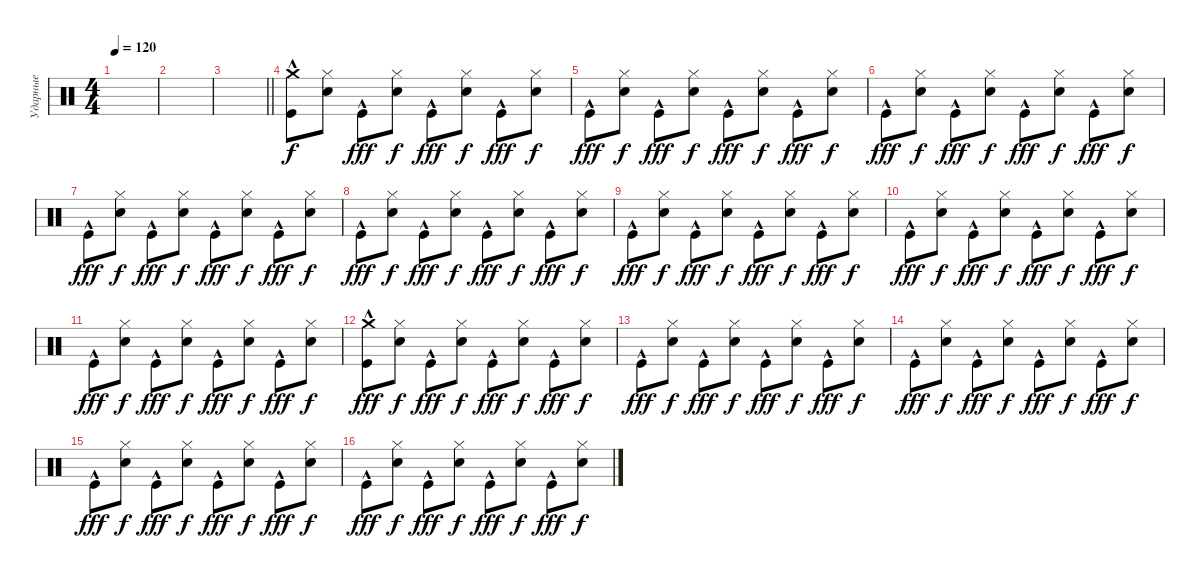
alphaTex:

\track ("Ударные" "Ударные") {instrument percussion}
\staff {score}
\articulation defaults
\ts (4 4)
\tempo 120
\clef neutral
\ks c
|
|
\barLineRight lightlight
|
("Kick (hit)"{hac} "Crash medium (hit)").8 ("Hand Clap (hit)" "Hi-Hat (closed)").8{dy f} "Kick (hit)"{hac}.8{dy fff} ("Hand Clap (hit)" "Hi-Hat (closed)").8{dy f} "Kick (hit)"{hac}.8{dy fff} ("Hand Clap (hit)" "Hi-Hat (closed)").8{dy f} "Kick (hit)"{hac}.8{dy fff} ("Hand Clap (hit)" "Hi-Hat (closed)").8{dy f} |
"Kick (hit)"{hac}.8{dy fff} ("Hand Clap (hit)" "Hi-Hat (closed)").8{dy f} "Kick (hit)"{hac}.8{dy fff} ("Hand Clap (hit)" "Hi-Hat (closed)").8{dy f} "Kick (hit)"{hac}.8{dy fff} ("Hand Clap (hit)" "Hi-Hat (closed)").8{dy f} "Kick (hit)"{hac}.8{dy fff} ("Hand Clap (hit)" "Hi-Hat (closed)").8{dy f} |
"Kick (hit)"{hac}.8{dy fff} ("Hand Clap (hit)" "Hi-Hat (closed)").8{dy f} "Kick (hit)"{hac}.8{dy fff} ("Hand Clap (hit)" "Hi-Hat (closed)").8{dy f} "Kick (hit)"{hac}.8{dy fff} ("Hand Clap (hit)" "Hi-Hat (closed)").8{dy f} "Kick (hit)"{hac}.8{dy fff} ("Hand Clap (hit)" "Hi-Hat (closed)").8{dy f} |
"Kick (hit)"{hac}.8{dy fff} ("Hand Clap (hit)" "Hi-Hat (closed)").8{dy f} "Kick (hit)"{hac}.8{dy fff} ("Hand Clap (hit)" "Hi-Hat (closed)").8{dy f} "Kick (hit)"{hac}.8{dy fff} ("Hand Clap (hit)" "Hi-Hat (closed)").8{dy f} "Kick (hit)"{hac}.8{dy fff} ("Hand Clap (hit)" "Hi-Hat (closed)").8{dy f} |
"Kick (hit)"{hac}.8{dy fff} ("Hand Clap (hit)" "Hi-Hat (closed)").8{dy f} "Kick (hit)"{hac}.8{dy fff} ("Hand Clap (hit)" "Hi-Hat (closed)").8{dy f} "Kick (hit)"{hac}.8{dy fff} ("Hand Clap (hit)" "Hi-Hat (closed)").8{dy f} "Kick (hit)"{hac}.8{dy fff} ("Hand Clap (hit)" "Hi-Hat (closed)").8{dy f} |
"Kick (hit)"{hac}.8{dy fff} ("Hand Clap (hit)" "Hi-Hat (closed)").8{dy f} "Kick (hit)"{hac}.8{dy fff} ("Hand Clap (hit)" "Hi-Hat (closed)").8{dy f} "Kick (hit)"{hac}.8{dy fff} ("Hand Clap (hit)" "Hi-Hat (closed)").8{dy f} "Kick (hit)"{hac}.8{dy fff} ("Hand Clap (hit)" "Hi-Hat (closed)").8{dy f} |
"Kick (hit)"{hac}.8{dy fff} ("Hand Clap (hit)" "Hi-Hat (closed)").8{dy f} "Kick (hit)"{hac}.8{dy fff} ("Hand Clap (hit)" "Hi-Hat (closed)").8{dy f} "Kick (hit)"{hac}.8{dy fff} ("Hand Clap (hit)" "Hi-Hat (closed)").8{dy f} "Kick (hit)"{hac}.8{dy fff} ("Hand Clap (hit)" "Hi-Hat (closed)").8{dy f} |
"Kick (hit)"{hac}.8{dy fff} ("Hand Clap (hit)" "Hi-Hat (closed)").8{dy f} "Kick (hit)"{hac}.8{dy fff} ("Hand Clap (hit)" "Hi-Hat (closed)").8{dy f} "Kick (hit)"{hac}.8{dy fff} ("Hand Clap (hit)" "Hi-Hat (closed)").8{dy f} "Kick (hit)"{hac}.8{dy fff} ("Hand Clap (hit)" "Hi-Hat (closed)").8{dy f} |
("Kick (hit)"{hac} "Crash medium (hit)").8{dy fff} ("Hand Clap (hit)" "Hi-Hat (closed)").8{dy f} "Kick (hit)"{hac}.8{dy fff} ("Hand Clap (hit)" "Hi-Hat (closed)").8{dy f} "Kick (hit)"{hac}.8{dy fff} ("Hand Clap (hit)" "Hi-Hat (closed)").8{dy f} "Kick (hit)"{hac}.8{dy fff} ("Hand Clap (hit)" "Hi-Hat (closed)").8{dy f} |
"Kick (hit)"{hac}.8{dy fff} ("Hand Clap (hit)" "Hi-Hat (closed)").8{dy f} "Kick (hit)"{hac}.8{dy fff} ("Hand Clap (hit)" "Hi-Hat (closed)").8{dy f} "Kick (hit)"{hac}.8{dy fff} ("Hand Clap (hit)" "Hi-Hat (closed)").8{dy f} "Kick (hit)"{hac}.8{dy fff} ("Hand Clap (hit)" "Hi-Hat (closed)").8{dy f} |
"Kick (hit)"{hac}.8{dy fff} ("Hand Clap (hit)" "Hi-Hat (closed)").8{dy f} "Kick (hit)"{hac}.8{dy fff} ("Hand Clap (hit)" "Hi-Hat (closed)").8{dy f} "Kick (hit)"{hac}.8{dy fff} ("Hand Clap (hit)" "Hi-Hat (closed)").8{dy f} "Kick (hit)"{hac}.8{dy fff} ("Hand Clap (hit)" "Hi-Hat (closed)").8{dy f} |
"Kick (hit)"{hac}.8{dy fff} ("Hand Clap (hit)" "Hi-Hat (closed)").8{dy f} "Kick (hit)"{hac}.8{dy fff} ("Hand Clap (hit)" "Hi-Hat (closed)").8{dy f} "Kick (hit)"{hac}.8{dy fff} ("Hand Clap (hit)" "Hi-Hat (closed)").8{dy f} "Kick (hit)"{hac}.8{dy fff} ("Hand Clap (hit)" "Hi-Hat (closed)").8{dy f} |
"Kick (hit)"{hac}.8{dy fff} ("Hand Clap (hit)" "Hi-Hat (closed)").8{dy f} "Kick (hit)"{hac}.8{dy fff} ("Hand Clap (hit)" "Hi-Hat (closed)").8{dy f} "Kick (hit)"{hac}.8{dy fff} ("Hand Clap (hit)" "Hi-Hat (closed)").8{dy f} "Kick (hit)"{hac}.8{dy fff} ("Hand Clap (hit)" "Hi-Hat (closed)").8{dy f}
